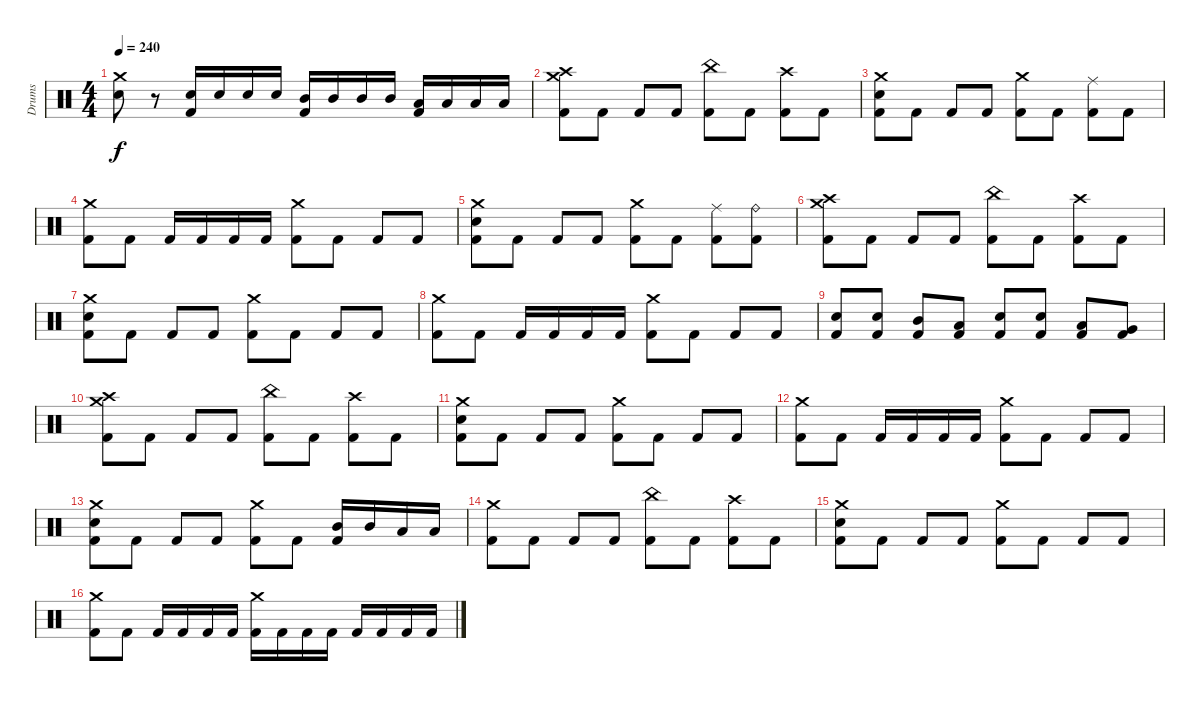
\track ("Drums" "Drums") {instrument percussion}
\staff {score}
\articulation defaults
\ts (4 4)
\tempo 240
\clef neutral
\ks c
("Crash medium (hit)" "Electric Snare (hit)").8{dy f} r.8 ("Electric Snare (hit)" "Kick (hit) 2").16 "Electric Snare (hit)".16 "Electric Snare (hit)".16 "Electric Snare (hit)".16 ("Mid Tom (hit)" "Kick (hit) 2").16 "Mid Tom (hit)".16 "Mid Tom (hit)".16 "Mid Tom (hit)".16 ("Low Tom (hit)" "Kick (hit) 2").16 "Low Tom (hit)".16 "Low Tom (hit)".16 "Low Tom (hit)".16 |
("Crash medium (hit)" "Crash high (hit)" "Kick (hit) 2").8 "Kick (hit) 2".8 "Kick (hit) 2".8 "Kick (hit) 2".8 ("China (hit)" "Kick (hit) 2").8 "Kick (hit) 2".8 ("Crash high (hit)" "Kick (hit) 2").8 "Kick (hit) 2".8 |
("Crash medium (hit)" "Electric Snare (hit)" "Kick (hit) 2").8 "Kick (hit) 2".8 "Kick (hit) 2".8 "Kick (hit) 2".8 ("Crash medium (hit)" "Kick (hit) 2").8 "Kick (hit) 2".8 ("Ride (middle)" "Kick (hit) 2").8 "Kick (hit) 2".8 |
("Crash medium (hit)" "Kick (hit) 2").8 "Kick (hit) 2".8 "Kick (hit) 2".16 "Kick (hit) 2".16 "Kick (hit) 2".16 "Kick (hit) 2".16 ("Crash medium (hit)" "Kick (hit) 2").8 "Kick (hit) 2".8 "Kick (hit) 2".8 "Kick (hit) 2".8 |
("Crash medium (hit)" "Electric Snare (hit)" "Kick (hit) 2").8 "Kick (hit) 2".8 "Kick (hit) 2".8 "Kick (hit) 2".8 ("Crash medium (hit)" "Kick (hit) 2").8 "Kick (hit) 2".8 ("Ride (middle)" "Kick (hit) 2").8 ("Ride (bell)" "Kick (hit) 2").8 |
("Crash medium (hit)" "Crash high (hit)" "Kick (hit) 2").8 "Kick (hit) 2".8 "Kick (hit) 2".8 "Kick (hit) 2".8 ("China (hit)" "Kick (hit) 2").8 "Kick (hit) 2".8 ("Crash high (hit)" "Kick (hit) 2").8 "Kick (hit) 2".8 |
("Crash medium (hit)" "Electric Snare (hit)" "Kick (hit) 2").8 "Kick (hit) 2".8 "Kick (hit) 2".8 "Kick (hit) 2".8 ("Crash medium (hit)" "Kick (hit) 2").8 "Kick (hit) 2".8 "Kick (hit) 2".8 "Kick (hit) 2".8 |
("Crash medium (hit)" "Kick (hit) 2").8 "Kick (hit) 2".8 "Kick (hit) 2".16 "Kick (hit) 2".16 "Kick (hit) 2".16 "Kick (hit) 2".16 ("Crash medium (hit)" "Kick (hit) 2").8 "Kick (hit) 2".8 "Kick (hit) 2".8 "Kick (hit) 2".8 |
("Electric Snare (hit)" "Kick (hit) 2").8 ("Electric Snare (hit)" "Kick (hit) 2").8 ("Mid Tom (hit)" "Kick (hit) 2").8 ("Low Tom (hit)" "Kick (hit) 2").8 ("Electric Snare (hit)" "Kick (hit) 2").8 ("Electric Snare (hit)" "Kick (hit) 2").8 ("Low Tom (hit)" "Kick (hit) 2").8 ("Very Low Tom (hit)" "Kick (hit) 2").8 |
("Crash medium (hit)" "Crash high (hit)" "Kick (hit) 2").8 "Kick (hit) 2".8 "Kick (hit) 2".8 "Kick (hit) 2".8 ("China (hit)" "Kick (hit) 2").8 "Kick (hit) 2".8 ("Crash high (hit)" "Kick (hit) 2").8 "Kick (hit) 2".8 |
("Crash medium (hit)" "Electric Snare (hit)" "Kick (hit) 2").8 "Kick (hit) 2".8 "Kick (hit) 2".8 "Kick (hit) 2".8 ("Crash medium (hit)" "Kick (hit) 2").8 "Kick (hit) 2".8 "Kick (hit) 2".8 "Kick (hit) 2".8 |
("Crash medium (hit)" "Kick (hit) 2").8 "Kick (hit) 2".8 "Kick (hit) 2".16 "Kick (hit) 2".16 "Kick (hit) 2".16 "Kick (hit) 2".16 ("Crash medium (hit)" "Kick (hit) 2").8 "Kick (hit) 2".8 "Kick (hit) 2".8 "Kick (hit) 2".8 |
("Crash medium (hit)" "Electric Snare (hit)" "Kick (hit) 2").8 "Kick (hit) 2".8 "Kick (hit) 2".8 "Kick (hit) 2".8 ("Crash medium (hit)" "Kick (hit) 2").8 "Kick (hit) 2".8 ("Mid Tom (hit)" "Kick (hit) 2").16 "Mid Tom (hit)".16 "Low Tom (hit)".16 "Low Tom (hit)".16 |
("Crash medium (hit)" "Kick (hit) 2").8 "Kick (hit) 2".8 "Kick (hit) 2".8 "Kick (hit) 2".8 ("China (hit)" "Kick (hit) 2").8 "Kick (hit) 2".8 ("Crash high (hit)" "Kick (hit) 2").8 "Kick (hit) 2".8 |
("Crash medium (hit)" "Electric Snare (hit)" "Kick (hit) 2").8 "Kick (hit) 2".8 "Kick (hit) 2".8 "Kick (hit) 2".8 ("Crash medium (hit)" "Kick (hit) 2").8 "Kick (hit) 2".8 "Kick (hit) 2".8 "Kick (hit) 2".8 |
("Crash medium (hit)" "Kick (hit) 2").8 "Kick (hit) 2".8 "Kick (hit) 2".16 "Kick (hit) 2".16 "Kick (hit) 2".16 "Kick (hit) 2".16 ("Crash medium (hit)" "Kick (hit) 2").16 "Kick (hit) 2".16 "Kick (hit) 2".16 "Kick (hit) 2".16 "Kick (hit) 2".16 "Kick (hit) 2".16 "Kick (hit) 2".16 "Kick (hit) 2".16
